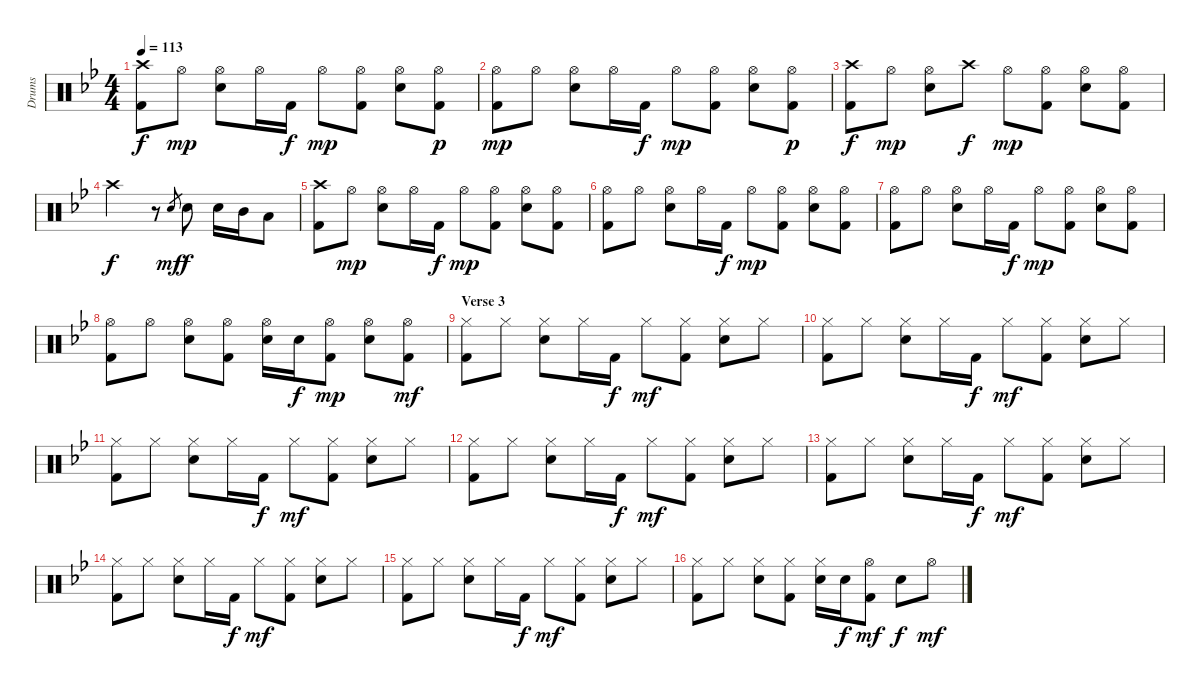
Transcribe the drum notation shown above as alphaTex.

\track ("Drums" "Drums") {instrument percussion}
\staff {score}
\articulation defaults
\ts (4 4)
\tempo 113
\clef neutral
\ks bb
("Crash high (hit)" "Kick (hit) 2").8{dy f} "Hi-Hat (open)".8{dy mp} ("Hi-Hat (open)" "Electric Snare (hit)").8 "Hi-Hat (open)".16 "Kick (hit) 2".16{dy f} "Hi-Hat (open)".8{dy mp} ("Hi-Hat (open)" "Kick (hit) 2").8 ("Hi-Hat (open)" "Electric Snare (hit)").8 ("Hi-Hat (open)" "Kick (hit) 2").8{dy p} |
("Hi-Hat (open)" "Kick (hit) 2").8{dy mp} "Hi-Hat (open)".8 ("Hi-Hat (open)" "Electric Snare (hit)").8 "Hi-Hat (open)".16 "Kick (hit) 2".16{dy f} "Hi-Hat (open)".8{dy mp} ("Hi-Hat (open)" "Kick (hit) 2").8 ("Hi-Hat (open)" "Electric Snare (hit)").8 ("Hi-Hat (open)" "Kick (hit) 2").8{dy p} |
("Crash high (hit)" "Kick (hit) 2").8{dy f} "Hi-Hat (open)".8{dy mp} ("Hi-Hat (open)" "Electric Snare (hit)").8 "Crash high (hit)".8{dy f} "Hi-Hat (open)".8{dy mp} ("Hi-Hat (open)" "Kick (hit) 2").8 ("Hi-Hat (open)" "Electric Snare (hit)").8 ("Hi-Hat (open)" "Kick (hit) 2").8 |
"Crash high (hit)".2{dy f} r.8 "Electric Snare (hit)".8{gr dy mf} "Electric Snare (hit)".8{dy f} "Electric Snare (hit)".16 "Mid Tom (hit)".16 "Low Tom (hit)".8 |
("Crash high (hit)" "Kick (hit) 2").8 "Hi-Hat (open)".8{dy mp} ("Hi-Hat (open)" "Electric Snare (hit)").8 "Hi-Hat (open)".16 "Kick (hit) 2".16{dy f} "Hi-Hat (open)".8{dy mp} ("Hi-Hat (open)" "Kick (hit) 2").8 ("Hi-Hat (open)" "Electric Snare (hit)").8 ("Hi-Hat (open)" "Kick (hit) 2").8 |
("Hi-Hat (open)" "Kick (hit) 2").8 "Hi-Hat (open)".8 ("Hi-Hat (open)" "Electric Snare (hit)").8 "Hi-Hat (open)".16 "Kick (hit) 2".16{dy f} "Hi-Hat (open)".8{dy mp} ("Hi-Hat (open)" "Kick (hit) 2").8 ("Hi-Hat (open)" "Electric Snare (hit)").8 ("Hi-Hat (open)" "Kick (hit) 2").8 |
("Hi-Hat (open)" "Kick (hit) 2").8 "Hi-Hat (open)".8 ("Hi-Hat (open)" "Electric Snare (hit)").8 "Hi-Hat (open)".16 "Kick (hit) 2".16{dy f} "Hi-Hat (open)".8{dy mp} ("Hi-Hat (open)" "Kick (hit) 2").8 ("Hi-Hat (open)" "Electric Snare (hit)").8 ("Hi-Hat (open)" "Kick (hit) 2").8 |
("Hi-Hat (open)" "Kick (hit) 2").8 "Hi-Hat (open)".8 ("Hi-Hat (open)" "Electric Snare (hit)").8 ("Hi-Hat (open)" "Kick (hit) 2").8 ("Hi-Hat (open)" "Electric Snare (hit)").16 "Electric Snare (hit)".16{dy f} ("Hi-Hat (open)" "Kick (hit) 2").8{dy mp} ("Hi-Hat (open)" "Electric Snare (hit)").8 ("Hi-Hat (open)" "Kick (hit) 2").8{dy mf} |
\section ("" "Verse 3")
("Hi-Hat (closed)" "Kick (hit) 2").8 "Hi-Hat (closed)".8 ("Hi-Hat (closed)" "Electric Snare (hit)").8 "Hi-Hat (closed)".16 "Kick (hit) 2".16{dy f} "Hi-Hat (closed)".8{dy mf} ("Hi-Hat (closed)" "Kick (hit) 2").8 ("Hi-Hat (closed)" "Electric Snare (hit)").8 "Hi-Hat (closed)".8 |
("Hi-Hat (closed)" "Kick (hit) 2").8 "Hi-Hat (closed)".8 ("Hi-Hat (closed)" "Electric Snare (hit)").8 "Hi-Hat (closed)".16 "Kick (hit) 2".16{dy f} "Hi-Hat (closed)".8{dy mf} ("Hi-Hat (closed)" "Kick (hit) 2").8 ("Hi-Hat (closed)" "Electric Snare (hit)").8 "Hi-Hat (closed)".8 |
("Hi-Hat (closed)" "Kick (hit) 2").8 "Hi-Hat (closed)".8 ("Hi-Hat (closed)" "Electric Snare (hit)").8 "Hi-Hat (closed)".16 "Kick (hit) 2".16{dy f} "Hi-Hat (closed)".8{dy mf} ("Hi-Hat (closed)" "Kick (hit) 2").8 ("Hi-Hat (closed)" "Electric Snare (hit)").8 "Hi-Hat (closed)".8 |
("Hi-Hat (closed)" "Kick (hit) 2").8 "Hi-Hat (closed)".8 ("Hi-Hat (closed)" "Electric Snare (hit)").8 "Hi-Hat (closed)".16 "Kick (hit) 2".16{dy f} "Hi-Hat (closed)".8{dy mf} ("Hi-Hat (closed)" "Kick (hit) 2").8 ("Hi-Hat (closed)" "Electric Snare (hit)").8 "Hi-Hat (closed)".8 |
("Hi-Hat (closed)" "Kick (hit) 2").8 "Hi-Hat (closed)".8 ("Hi-Hat (closed)" "Electric Snare (hit)").8 "Hi-Hat (closed)".16 "Kick (hit) 2".16{dy f} "Hi-Hat (closed)".8{dy mf} ("Hi-Hat (closed)" "Kick (hit) 2").8 ("Hi-Hat (closed)" "Electric Snare (hit)").8 "Hi-Hat (closed)".8 |
("Hi-Hat (closed)" "Kick (hit) 2").8 "Hi-Hat (closed)".8 ("Hi-Hat (closed)" "Electric Snare (hit)").8 "Hi-Hat (closed)".16 "Kick (hit) 2".16{dy f} "Hi-Hat (closed)".8{dy mf} ("Hi-Hat (closed)" "Kick (hit) 2").8 ("Hi-Hat (closed)" "Electric Snare (hit)").8 "Hi-Hat (closed)".8 |
("Hi-Hat (closed)" "Kick (hit) 2").8 "Hi-Hat (closed)".8 ("Hi-Hat (closed)" "Electric Snare (hit)").8 "Hi-Hat (closed)".16 "Kick (hit) 2".16{dy f} "Hi-Hat (closed)".8{dy mf} ("Hi-Hat (closed)" "Kick (hit) 2").8 ("Hi-Hat (closed)" "Electric Snare (hit)").8 "Hi-Hat (closed)".8 |
("Hi-Hat (closed)" "Kick (hit) 2").8 "Hi-Hat (closed)".8 ("Hi-Hat (closed)" "Electric Snare (hit)").8 ("Hi-Hat (closed)" "Kick (hit) 2").8 ("Hi-Hat (closed)" "Electric Snare (hit)").16 "Electric Snare (hit)".16{dy f} ("Hi-Hat (open)" "Kick (hit) 2").8{dy mf} "Electric Snare (hit)".8{dy f} "Hi-Hat (open)".8{dy mf}
